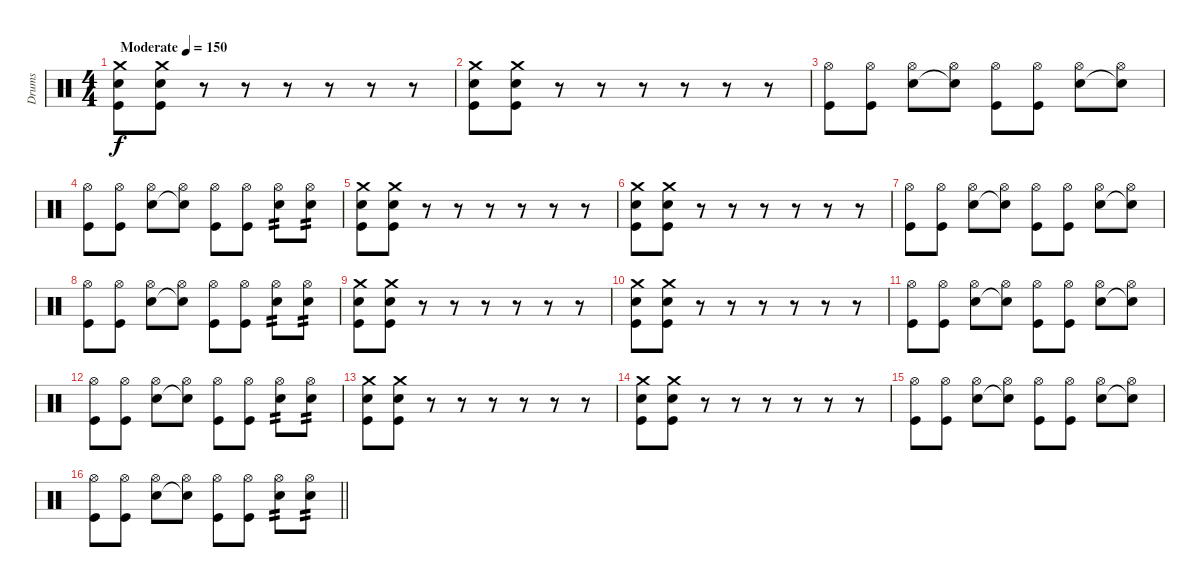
\track ("Drums" "Drums") {instrument percussion}
\staff {score}
\articulation defaults
\ts (4 4)
\tempo (150 "Moderate")
\clef neutral
\ks c
("Crash medium (hit)" "Electric Snare (hit)" "Kick (hit)").8{dy f} ("Crash medium (hit)" "Electric Snare (hit)" "Kick (hit)").8 r.8 r.8 r.8 r.8 r.8 r.8 |
("Crash medium (hit)" "Electric Snare (hit)" "Kick (hit)").8 ("Crash medium (hit)" "Electric Snare (hit)" "Kick (hit)").8 r.8 r.8 r.8 r.8 r.8 r.8 |
("Hi-Hat (open)" "Kick (hit)").8 ("Hi-Hat (open)" "Kick (hit)").8 ("Hi-Hat (open)" "Electric Snare (hit)").8 ("Hi-Hat (open)" "Snare (hit)"{t}).8 ("Hi-Hat (open)" "Kick (hit)").8 ("Hi-Hat (open)" "Kick (hit)").8 ("Hi-Hat (open)" "Electric Snare (hit)").8 ("Hi-Hat (open)" "Snare (hit)"{t}).8 |
("Hi-Hat (open)" "Kick (hit)").8 ("Hi-Hat (open)" "Kick (hit)").8 ("Hi-Hat (open)" "Electric Snare (hit)").8 ("Hi-Hat (open)" "Snare (hit)"{t}).8 ("Hi-Hat (open)" "Kick (hit)").8 ("Hi-Hat (open)" "Kick (hit)").8 ("Hi-Hat (open)" "Electric Snare (hit)").8{tp 2} ("Hi-Hat (open)" "Electric Snare (hit)").8{tp 2} |
("Crash medium (hit)" "Electric Snare (hit)" "Kick (hit)").8 ("Crash medium (hit)" "Electric Snare (hit)" "Kick (hit)").8 r.8 r.8 r.8 r.8 r.8 r.8 |
("Crash medium (hit)" "Electric Snare (hit)" "Kick (hit)").8 ("Crash medium (hit)" "Electric Snare (hit)" "Kick (hit)").8 r.8 r.8 r.8 r.8 r.8 r.8 |
("Hi-Hat (open)" "Kick (hit)").8 ("Hi-Hat (open)" "Kick (hit)").8 ("Hi-Hat (open)" "Electric Snare (hit)").8 ("Hi-Hat (open)" "Snare (hit)"{t}).8 ("Hi-Hat (open)" "Kick (hit)").8 ("Hi-Hat (open)" "Kick (hit)").8 ("Hi-Hat (open)" "Electric Snare (hit)").8 ("Hi-Hat (open)" "Snare (hit)"{t}).8 |
("Hi-Hat (open)" "Kick (hit)").8 ("Hi-Hat (open)" "Kick (hit)").8 ("Hi-Hat (open)" "Electric Snare (hit)").8 ("Hi-Hat (open)" "Snare (hit)"{t}).8 ("Hi-Hat (open)" "Kick (hit)").8 ("Hi-Hat (open)" "Kick (hit)").8 ("Hi-Hat (open)" "Electric Snare (hit)").8{tp 2} ("Hi-Hat (open)" "Electric Snare (hit)").8{tp 2} |
("Crash medium (hit)" "Electric Snare (hit)" "Kick (hit)").8 ("Crash medium (hit)" "Electric Snare (hit)" "Kick (hit)").8 r.8 r.8 r.8 r.8 r.8 r.8 |
("Crash medium (hit)" "Electric Snare (hit)" "Kick (hit)").8 ("Crash medium (hit)" "Electric Snare (hit)" "Kick (hit)").8 r.8 r.8 r.8 r.8 r.8 r.8 |
("Hi-Hat (open)" "Kick (hit)").8 ("Hi-Hat (open)" "Kick (hit)").8 ("Hi-Hat (open)" "Electric Snare (hit)").8 ("Hi-Hat (open)" "Snare (hit)"{t}).8 ("Hi-Hat (open)" "Kick (hit)").8 ("Hi-Hat (open)" "Kick (hit)").8 ("Hi-Hat (open)" "Electric Snare (hit)").8 ("Hi-Hat (open)" "Snare (hit)"{t}).8 |
("Hi-Hat (open)" "Kick (hit)").8 ("Hi-Hat (open)" "Kick (hit)").8 ("Hi-Hat (open)" "Electric Snare (hit)").8 ("Hi-Hat (open)" "Snare (hit)"{t}).8 ("Hi-Hat (open)" "Kick (hit)").8 ("Hi-Hat (open)" "Kick (hit)").8 ("Hi-Hat (open)" "Electric Snare (hit)").8{tp 2} ("Hi-Hat (open)" "Electric Snare (hit)").8{tp 2} |
("Crash medium (hit)" "Electric Snare (hit)" "Kick (hit)").8 ("Crash medium (hit)" "Electric Snare (hit)" "Kick (hit)").8 r.8 r.8 r.8 r.8 r.8 r.8 |
("Crash medium (hit)" "Electric Snare (hit)" "Kick (hit)").8 ("Crash medium (hit)" "Electric Snare (hit)" "Kick (hit)").8 r.8 r.8 r.8 r.8 r.8 r.8 |
("Hi-Hat (open)" "Kick (hit)").8 ("Hi-Hat (open)" "Kick (hit)").8 ("Hi-Hat (open)" "Electric Snare (hit)").8 ("Hi-Hat (open)" "Snare (hit)"{t}).8 ("Hi-Hat (open)" "Kick (hit)").8 ("Hi-Hat (open)" "Kick (hit)").8 ("Hi-Hat (open)" "Electric Snare (hit)").8 ("Hi-Hat (open)" "Snare (hit)"{t}).8 |
\barLineRight lightlight
("Hi-Hat (open)" "Kick (hit)").8 ("Hi-Hat (open)" "Kick (hit)").8 ("Hi-Hat (open)" "Electric Snare (hit)").8 ("Hi-Hat (open)" "Snare (hit)"{t}).8 ("Hi-Hat (open)" "Kick (hit)").8 ("Hi-Hat (open)" "Kick (hit)").8 ("Hi-Hat (open)" "Electric Snare (hit)").8{tp 2} ("Hi-Hat (open)" "Electric Snare (hit)").8{tp 2}
